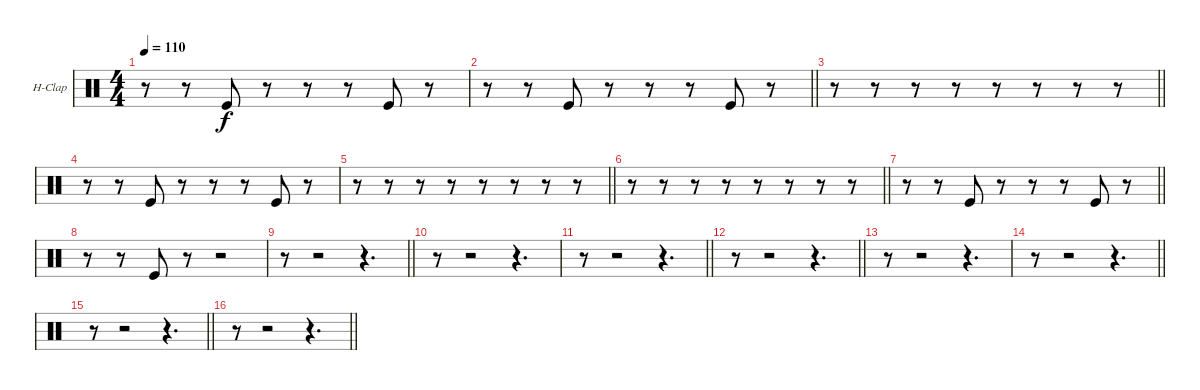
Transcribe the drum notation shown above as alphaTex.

\bracketExtendMode groupsimilarinstruments
\firstSystemTrackNameOrientation horizontal
\otherSystemsTrackNameOrientation horizontal
\track ("Hand Clap" "H-Clap") {instrument percussion}
\staff {score}
\articulation defaults
\ts (4 4)
\tempo 110
\clef neutral
\ks c
r.8{dy f} r.8 "Kick (hit)".8 r.8 r.8 r.8 "Kick (hit)".8 r.8 |
\barLineRight lightlight
r.8 r.8 "Kick (hit)".8 r.8 r.8 r.8 "Kick (hit)".8 r.8 |
\barLineRight lightlight
r.8 r.8 r.8 r.8 r.8 r.8 r.8 r.8 |
r.8 r.8 "Kick (hit)".8 r.8 r.8 r.8 "Kick (hit)".8 r.8 |
\barLineRight lightlight
r.8 r.8 r.8 r.8 r.8 r.8 r.8 r.8 |
\barLineRight lightlight
r.8 r.8 r.8 r.8 r.8 r.8 r.8 r.8 |
\barLineRight lightlight
r.8 r.8 "Kick (hit)".8 r.8 r.8 r.8 "Kick (hit)".8 r.8 |
r.8 r.8 "Kick (hit)".8 r.8 r.2 |
\barLineRight lightlight
r.8 r.2 r.4{d} |
r.8 r.2 r.4{d} |
\barLineRight lightlight
r.8 r.2 r.4{d} |
\barLineRight lightlight
r.8 r.2 r.4{d} |
r.8 r.2 r.4{d} |
\barLineRight lightlight
r.8 r.2 r.4{d} |
\barLineRight lightlight
r.8 r.2 r.4{d} |
\barLineRight lightlight
r.8 r.2 r.4{d}
